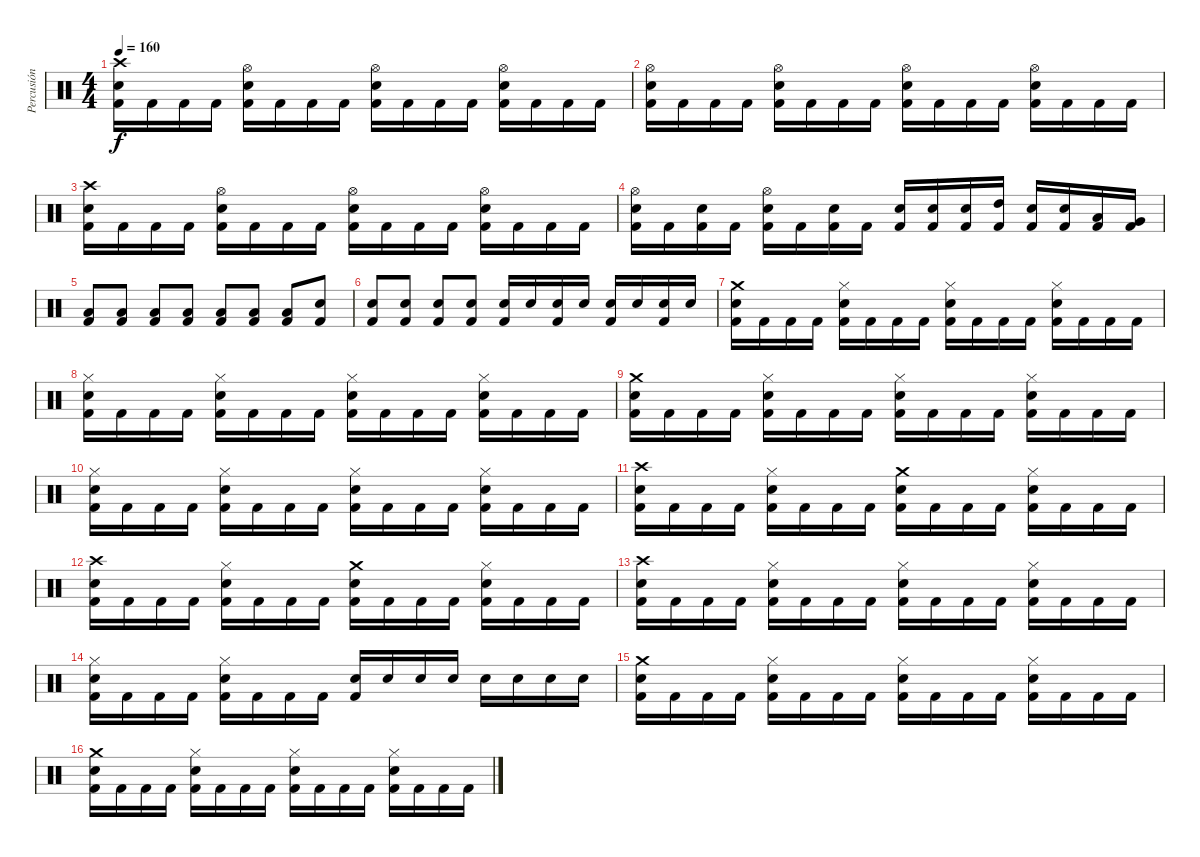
\track ("Percusión" "Percusión") {instrument percussion}
\staff {score}
\articulation defaults
\ts (4 4)
\tempo 160
\clef neutral
\ks c
("Crash high (hit)" "Snare (hit) 2" "Kick (hit) 2").16{dy f} "Kick (hit) 2".16 "Kick (hit) 2".16 "Kick (hit) 2".16 ("Hi-Hat (open)" "Snare (hit) 2" "Kick (hit) 2").16 "Kick (hit) 2".16 "Kick (hit) 2".16 "Kick (hit) 2".16 ("Hi-Hat (open)" "Snare (hit) 2" "Kick (hit) 2").16 "Kick (hit) 2".16 "Kick (hit) 2".16 "Kick (hit) 2".16 ("Hi-Hat (open)" "Snare (hit) 2" "Kick (hit) 2").16 "Kick (hit) 2".16 "Kick (hit) 2".16 "Kick (hit) 2".16 |
("Hi-Hat (open)" "Snare (hit) 2" "Kick (hit) 2").16 "Kick (hit) 2".16 "Kick (hit) 2".16 "Kick (hit) 2".16 ("Hi-Hat (open)" "Snare (hit) 2" "Kick (hit) 2").16 "Kick (hit) 2".16 "Kick (hit) 2".16 "Kick (hit) 2".16 ("Hi-Hat (open)" "Snare (hit) 2" "Kick (hit) 2").16 "Kick (hit) 2".16 "Kick (hit) 2".16 "Kick (hit) 2".16 ("Hi-Hat (open)" "Snare (hit) 2" "Kick (hit) 2").16 "Kick (hit) 2".16 "Kick (hit) 2".16 "Kick (hit) 2".16 |
("Crash high (hit)" "Snare (hit) 2" "Kick (hit) 2").16 "Kick (hit) 2".16 "Kick (hit) 2".16 "Kick (hit) 2".16 ("Hi-Hat (open)" "Snare (hit) 2" "Kick (hit) 2").16 "Kick (hit) 2".16 "Kick (hit) 2".16 "Kick (hit) 2".16 ("Hi-Hat (open)" "Snare (hit) 2" "Kick (hit) 2").16 "Kick (hit) 2".16 "Kick (hit) 2".16 "Kick (hit) 2".16 ("Hi-Hat (open)" "Snare (hit) 2" "Kick (hit) 2").16 "Kick (hit) 2".16 "Kick (hit) 2".16 "Kick (hit) 2".16 |
("Hi-Hat (open)" "Snare (hit) 2" "Kick (hit) 2").16 "Kick (hit) 2".16 ("Snare (hit) 2" "Kick (hit) 2").16 "Kick (hit) 2".16 ("Hi-Hat (open)" "Snare (hit) 2" "Kick (hit) 2").16 "Kick (hit) 2".16 ("Snare (hit) 2" "Kick (hit) 2").16 "Kick (hit) 2".16 ("Snare (hit) 2" "Kick (hit) 2").16 ("Snare (hit) 2" "Kick (hit) 2").16 ("Snare (hit) 2" "Kick (hit) 2").16 ("High Tom (hit)" "Kick (hit) 2").16 ("Snare (hit) 2" "Kick (hit) 2").16 ("Snare (hit) 2" "Kick (hit) 2").16 ("Low Tom (hit)" "Kick (hit) 2").16 ("Very Low Tom (hit)" "Kick (hit) 2").16 |
("Low Tom (hit)" "Kick (hit) 2").8 ("Low Tom (hit)" "Kick (hit) 2").8 ("Low Tom (hit)" "Kick (hit) 2").8 ("Low Tom (hit)" "Kick (hit) 2").8 ("Low Tom (hit)" "Kick (hit) 2").8 ("Low Tom (hit)" "Kick (hit) 2").8 ("Low Tom (hit)" "Kick (hit) 2").8 ("Snare (hit) 2" "Kick (hit) 2").8 |
("Snare (hit) 2" "Kick (hit) 2").8 ("Snare (hit) 2" "Kick (hit) 2").8 ("Snare (hit) 2" "Kick (hit) 2").8 ("Snare (hit) 2" "Kick (hit) 2").8 ("Snare (hit) 2" "Kick (hit) 2").16 "Snare (hit) 2".16 ("Snare (hit) 2" "Kick (hit) 2").16 "Snare (hit) 2".16 ("Snare (hit) 2" "Kick (hit) 2").16 "Snare (hit) 2".16 ("Snare (hit) 2" "Kick (hit) 2").16 "Snare (hit) 2".16 |
("Crash medium (hit)" "Snare (hit) 2" "Kick (hit) 2").16 "Kick (hit) 2".16 "Kick (hit) 2".16 "Kick (hit) 2".16 ("Hi-Hat (closed)" "Snare (hit) 2" "Kick (hit) 2").16 "Kick (hit) 2".16 "Kick (hit) 2".16 "Kick (hit) 2".16 ("Hi-Hat (closed)" "Snare (hit) 2" "Kick (hit) 2").16 "Kick (hit) 2".16 "Kick (hit) 2".16 "Kick (hit) 2".16 ("Hi-Hat (closed)" "Snare (hit) 2" "Kick (hit) 2").16 "Kick (hit) 2".16 "Kick (hit) 2".16 "Kick (hit) 2".16 |
("Hi-Hat (closed)" "Snare (hit) 2" "Kick (hit) 2").16 "Kick (hit) 2".16 "Kick (hit) 2".16 "Kick (hit) 2".16 ("Hi-Hat (closed)" "Snare (hit) 2" "Kick (hit) 2").16 "Kick (hit) 2".16 "Kick (hit) 2".16 "Kick (hit) 2".16 ("Hi-Hat (closed)" "Snare (hit) 2" "Kick (hit) 2").16 "Kick (hit) 2".16 "Kick (hit) 2".16 "Kick (hit) 2".16 ("Hi-Hat (closed)" "Snare (hit) 2" "Kick (hit) 2").16 "Kick (hit) 2".16 "Kick (hit) 2".16 "Kick (hit) 2".16 |
("Crash medium (hit)" "Snare (hit) 2" "Kick (hit) 2").16 "Kick (hit) 2".16 "Kick (hit) 2".16 "Kick (hit) 2".16 ("Hi-Hat (closed)" "Snare (hit) 2" "Kick (hit) 2").16 "Kick (hit) 2".16 "Kick (hit) 2".16 "Kick (hit) 2".16 ("Hi-Hat (closed)" "Snare (hit) 2" "Kick (hit) 2").16 "Kick (hit) 2".16 "Kick (hit) 2".16 "Kick (hit) 2".16 ("Hi-Hat (closed)" "Snare (hit) 2" "Kick (hit) 2").16 "Kick (hit) 2".16 "Kick (hit) 2".16 "Kick (hit) 2".16 |
("Hi-Hat (closed)" "Snare (hit) 2" "Kick (hit) 2").16 "Kick (hit) 2".16 "Kick (hit) 2".16 "Kick (hit) 2".16 ("Hi-Hat (closed)" "Snare (hit) 2" "Kick (hit) 2").16 "Kick (hit) 2".16 "Kick (hit) 2".16 "Kick (hit) 2".16 ("Hi-Hat (closed)" "Snare (hit) 2" "Kick (hit) 2").16 "Kick (hit) 2".16 "Kick (hit) 2".16 "Kick (hit) 2".16 ("Hi-Hat (closed)" "Snare (hit) 2" "Kick (hit) 2").16 "Kick (hit) 2".16 "Kick (hit) 2".16 "Kick (hit) 2".16 |
("Crash high (hit)" "Snare (hit) 2" "Kick (hit) 2").16 "Kick (hit) 2".16 "Kick (hit) 2".16 "Kick (hit) 2".16 ("Hi-Hat (closed)" "Snare (hit) 2" "Kick (hit) 2").16 "Kick (hit) 2".16 "Kick (hit) 2".16 "Kick (hit) 2".16 ("Crash medium (hit)" "Snare (hit) 2" "Kick (hit) 2").16 "Kick (hit) 2".16 "Kick (hit) 2".16 "Kick (hit) 2".16 ("Hi-Hat (closed)" "Snare (hit) 2" "Kick (hit) 2").16 "Kick (hit) 2".16 "Kick (hit) 2".16 "Kick (hit) 2".16 |
("Crash high (hit)" "Snare (hit) 2" "Kick (hit) 2").16 "Kick (hit) 2".16 "Kick (hit) 2".16 "Kick (hit) 2".16 ("Hi-Hat (closed)" "Snare (hit) 2" "Kick (hit) 2").16 "Kick (hit) 2".16 "Kick (hit) 2".16 "Kick (hit) 2".16 ("Crash medium (hit)" "Snare (hit) 2" "Kick (hit) 2").16 "Kick (hit) 2".16 "Kick (hit) 2".16 "Kick (hit) 2".16 ("Hi-Hat (closed)" "Snare (hit) 2" "Kick (hit) 2").16 "Kick (hit) 2".16 "Kick (hit) 2".16 "Kick (hit) 2".16 |
("Crash high (hit)" "Snare (hit) 2" "Kick (hit) 2").16 "Kick (hit) 2".16 "Kick (hit) 2".16 "Kick (hit) 2".16 ("Hi-Hat (closed)" "Snare (hit) 2" "Kick (hit) 2").16 "Kick (hit) 2".16 "Kick (hit) 2".16 "Kick (hit) 2".16 ("Hi-Hat (closed)" "Snare (hit) 2" "Kick (hit) 2").16 "Kick (hit) 2".16 "Kick (hit) 2".16 "Kick (hit) 2".16 ("Hi-Hat (closed)" "Snare (hit) 2" "Kick (hit) 2").16 "Kick (hit) 2".16 "Kick (hit) 2".16 "Kick (hit) 2".16 |
("Hi-Hat (closed)" "Snare (hit) 2" "Kick (hit) 2").16 "Kick (hit) 2".16 "Kick (hit) 2".16 "Kick (hit) 2".16 ("Hi-Hat (closed)" "Snare (hit) 2" "Kick (hit) 2").16 "Kick (hit) 2".16 "Kick (hit) 2".16 "Kick (hit) 2".16 ("Snare (hit) 2" "Kick (hit) 2").16 "Snare (hit) 2".16 "Snare (hit) 2".16 "Snare (hit) 2".16 "Snare (hit) 2".16 "Snare (hit) 2".16 "Snare (hit) 2".16 "Snare (hit) 2".16 |
("Crash medium (hit)" "Snare (hit) 2" "Kick (hit) 2").16 "Kick (hit) 2".16 "Kick (hit) 2".16 "Kick (hit) 2".16 ("Hi-Hat (closed)" "Snare (hit) 2" "Kick (hit) 2").16 "Kick (hit) 2".16 "Kick (hit) 2".16 "Kick (hit) 2".16 ("Hi-Hat (closed)" "Snare (hit) 2" "Kick (hit) 2").16 "Kick (hit) 2".16 "Kick (hit) 2".16 "Kick (hit) 2".16 ("Hi-Hat (closed)" "Snare (hit) 2" "Kick (hit) 2").16 "Kick (hit) 2".16 "Kick (hit) 2".16 "Kick (hit) 2".16 |
("Crash medium (hit)" "Snare (hit) 2" "Kick (hit) 2").16 "Kick (hit) 2".16 "Kick (hit) 2".16 "Kick (hit) 2".16 ("Hi-Hat (closed)" "Snare (hit) 2" "Kick (hit) 2").16 "Kick (hit) 2".16 "Kick (hit) 2".16 "Kick (hit) 2".16 ("Hi-Hat (closed)" "Snare (hit) 2" "Kick (hit) 2").16 "Kick (hit) 2".16 "Kick (hit) 2".16 "Kick (hit) 2".16 ("Hi-Hat (closed)" "Snare (hit) 2" "Kick (hit) 2").16 "Kick (hit) 2".16 "Kick (hit) 2".16 "Kick (hit) 2".16
